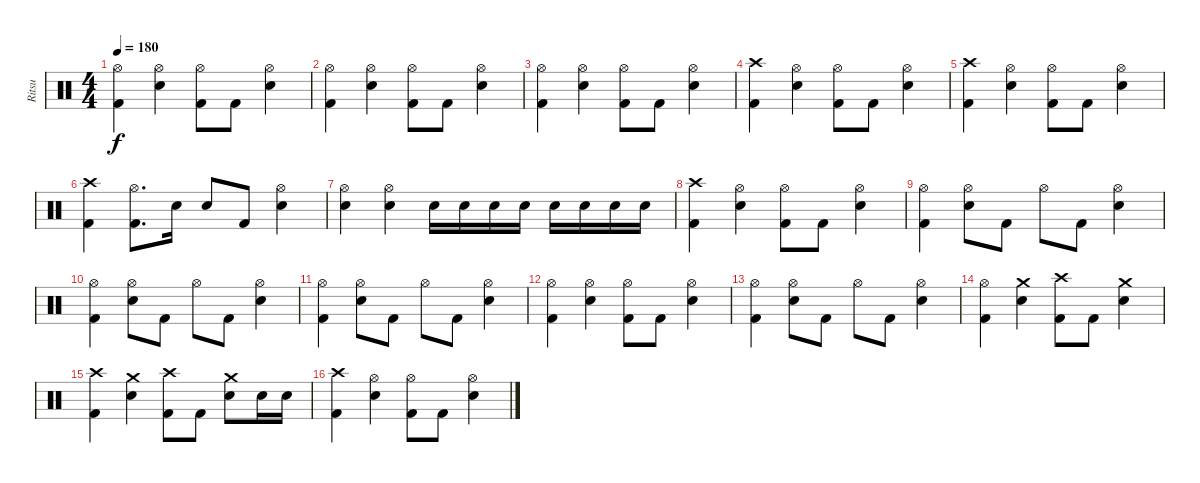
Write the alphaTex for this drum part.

\track ("Ritsu" "Ritsu") {instrument percussion}
\staff {score}
\articulation defaults
\ts (4 4)
\tempo 180
\clef neutral
\ks c
("Hi-Hat (open)" "Kick (hit) 2").4{dy f} ("Hi-Hat (open)" "Snare (hit) 2").4 ("Hi-Hat (open)" "Kick (hit) 2").8 "Kick (hit) 2".8 ("Hi-Hat (open)" "Snare (hit) 2").4 |
("Hi-Hat (open)" "Kick (hit) 2").4 ("Hi-Hat (open)" "Snare (hit) 2").4 ("Hi-Hat (open)" "Kick (hit) 2").8 "Kick (hit) 2".8 ("Hi-Hat (open)" "Snare (hit) 2").4 |
("Hi-Hat (open)" "Kick (hit) 2").4 ("Hi-Hat (open)" "Snare (hit) 2").4 ("Hi-Hat (open)" "Kick (hit) 2").8 "Kick (hit) 2".8 ("Hi-Hat (open)" "Snare (hit) 2").4 |
("Crash high (hit)" "Kick (hit) 2").4 ("Hi-Hat (open)" "Snare (hit) 2").4 ("Hi-Hat (open)" "Kick (hit) 2").8 "Kick (hit) 2".8 ("Hi-Hat (open)" "Snare (hit) 2").4 |
("Crash high (hit)" "Kick (hit) 2").4 ("Hi-Hat (open)" "Snare (hit) 2").4 ("Hi-Hat (open)" "Kick (hit) 2").8 "Kick (hit) 2".8 ("Hi-Hat (open)" "Snare (hit) 2").4 |
("Crash high (hit)" "Kick (hit) 2").4 ("Hi-Hat (open)" "Kick (hit) 2").8{d} "Snare (hit) 2".16 "Snare (hit) 2".8 "Kick (hit) 2".8 ("Hi-Hat (open)" "Snare (hit) 2").4 |
("Hi-Hat (open)" "Snare (hit) 2").4 ("Hi-Hat (open)" "Snare (hit) 2").4 "Snare (hit) 2".16 "Snare (hit) 2".16 "Snare (hit) 2".16 "Snare (hit) 2".16 "Snare (hit) 2".16 "Snare (hit) 2".16 "Snare (hit) 2".16 "Snare (hit) 2".16 |
("Crash high (hit)" "Kick (hit) 2").4 ("Hi-Hat (open)" "Snare (hit) 2").4 ("Hi-Hat (open)" "Kick (hit) 2").8 "Kick (hit) 2".8 ("Hi-Hat (open)" "Snare (hit) 2").4 |
("Hi-Hat (open)" "Kick (hit) 2").4 ("Hi-Hat (open)" "Snare (hit) 2").8 "Kick (hit) 2".8 "Hi-Hat (open)".8 "Kick (hit) 2".8 ("Hi-Hat (open)" "Snare (hit) 2").4 |
("Hi-Hat (open)" "Kick (hit) 2").4 ("Hi-Hat (open)" "Snare (hit) 2").8 "Kick (hit) 2".8 "Hi-Hat (open)".8 "Kick (hit) 2".8 ("Hi-Hat (open)" "Snare (hit) 2").4 |
("Hi-Hat (open)" "Kick (hit) 2").4 ("Hi-Hat (open)" "Snare (hit) 2").8 "Kick (hit) 2".8 "Hi-Hat (open)".8 "Kick (hit) 2".8 ("Hi-Hat (open)" "Snare (hit) 2").4 |
("Hi-Hat (open)" "Kick (hit) 2").4 ("Hi-Hat (open)" "Snare (hit) 2").4 ("Hi-Hat (open)" "Kick (hit) 2").8 "Kick (hit) 2".8 ("Hi-Hat (open)" "Snare (hit) 2").4 |
("Hi-Hat (open)" "Kick (hit) 2").4 ("Hi-Hat (open)" "Snare (hit) 2").8 "Kick (hit) 2".8 "Hi-Hat (open)".8 "Kick (hit) 2".8 ("Hi-Hat (open)" "Snare (hit) 2").4 |
("Hi-Hat (open)" "Kick (hit) 2").4 ("Crash medium (hit)" "Snare (hit) 2").4 ("Crash high (hit)" "Kick (hit) 2").8 "Kick (hit) 2".8 ("Crash medium (hit)" "Snare (hit) 2").4 |
("Crash high (hit)" "Kick (hit) 2").4 ("Crash medium (hit)" "Snare (hit) 2").4 ("Crash high (hit)" "Kick (hit) 2").8 "Kick (hit) 2".8 ("Crash medium (hit)" "Snare (hit) 2").8 "Snare (hit) 2".16 "Snare (hit) 2".16 |
("Crash high (hit)" "Kick (hit) 2").4 ("Hi-Hat (open)" "Snare (hit) 2").4 ("Hi-Hat (open)" "Kick (hit) 2").8 "Kick (hit) 2".8 ("Hi-Hat (open)" "Snare (hit) 2").4
